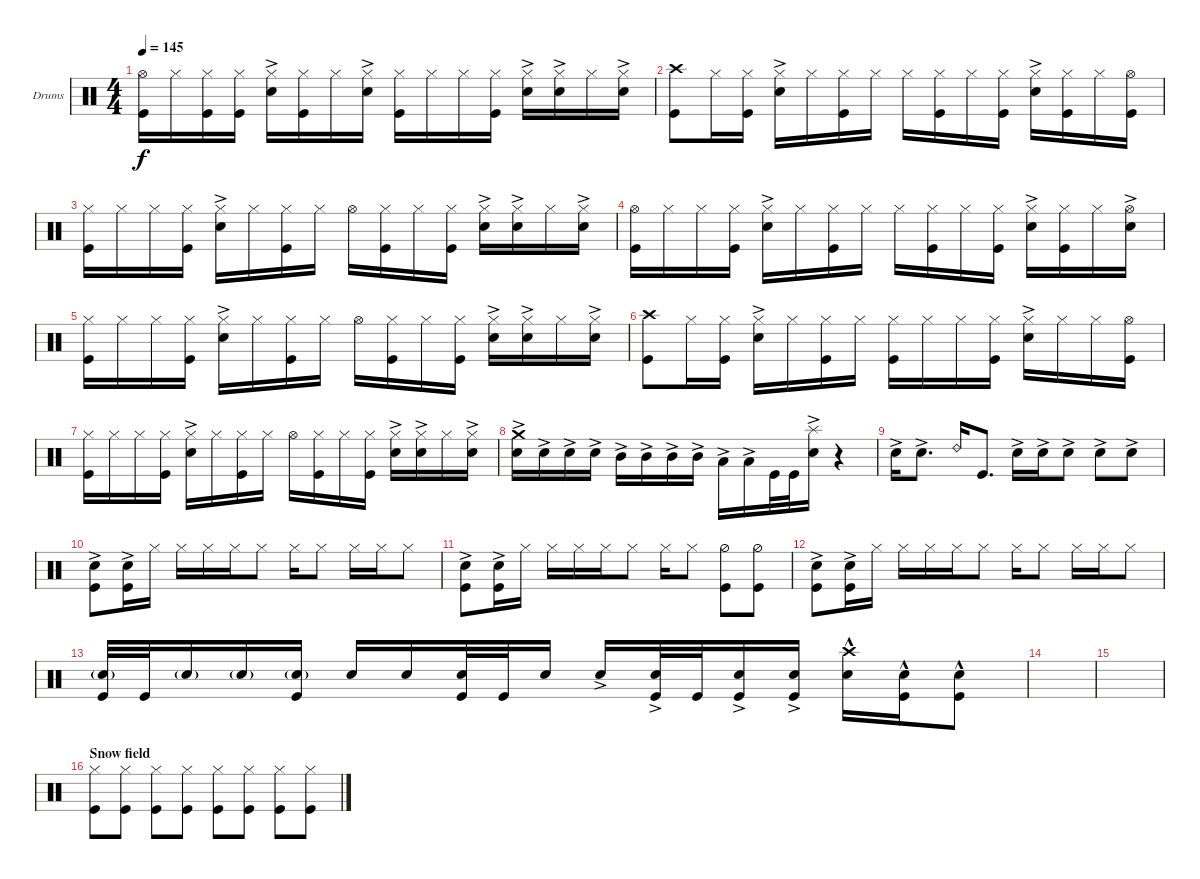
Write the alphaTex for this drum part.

\defaultSystemsLayout 4
\bracketExtendMode groupsimilarinstruments
\firstSystemTrackNameOrientation horizontal
\otherSystemsTrackNameOrientation horizontal
\track ("Drumkit" "Drums") {instrument percussion}
\staff {score}
\articulation defaults
\ts (4 4)
\tempo 145
\clef neutral
\ks c
("Kick (hit)" "Hi-Hat (open)").16{dy f} "Hi-Hat (closed)".16 ("Hi-Hat (closed)" "Kick (hit)").16 ("Kick (hit)" "Hi-Hat (closed)").16 ("Snare (hit) 2"{ac} "Hi-Hat (closed)").16 ("Hi-Hat (closed)" "Kick (hit)").16 "Hi-Hat (closed)".16 ("Hi-Hat (closed)" "Snare (hit) 2"{ac}).16 ("Hi-Hat (closed)" "Kick (hit)").16 "Hi-Hat (closed)".16 "Hi-Hat (closed)".16 ("Kick (hit)" "Hi-Hat (closed)").16 ("Hi-Hat (closed)" "Snare (hit) 2"{ac}).16 ("Hi-Hat (closed)" "Snare (hit) 2"{ac}).16 "Hi-Hat (closed)".16 ("Hi-Hat (closed)" "Snare (hit) 2"{ac}).16 |
("Kick (hit)" "Crash high (hit)").8 "Hi-Hat (closed)".16 ("Kick (hit)" "Hi-Hat (closed)").16 ("Snare (hit) 2"{ac} "Hi-Hat (closed)").16 "Hi-Hat (closed)".16 ("Hi-Hat (closed)" "Kick (hit)").16 "Hi-Hat (closed)".16 "Hi-Hat (closed)".16 ("Hi-Hat (closed)" "Kick (hit)").16 "Hi-Hat (closed)".16 ("Kick (hit)" "Hi-Hat (closed)").16 ("Hi-Hat (closed)" "Snare (hit) 2"{ac}).16 ("Hi-Hat (closed)" "Kick (hit)").16 "Hi-Hat (closed)".16 ("Hi-Hat (open)" "Kick (hit)").16 |
("Kick (hit)" "Hi-Hat (closed)").16 "Hi-Hat (closed)".16 "Hi-Hat (closed)".16 ("Kick (hit)" "Hi-Hat (closed)").16 ("Snare (hit) 2"{ac} "Hi-Hat (closed)").16 "Hi-Hat (closed)".16 ("Hi-Hat (closed)" "Kick (hit)").16 "Hi-Hat (closed)".16 "Hi-Hat (open)".16 ("Hi-Hat (closed)" "Kick (hit)").16 "Hi-Hat (closed)".16 ("Hi-Hat (closed)" "Kick (hit)").16 ("Hi-Hat (closed)" "Snare (hit) 2"{ac}).16 ("Hi-Hat (closed)" "Snare (hit) 2"{ac}).16 "Hi-Hat (closed)".16 ("Hi-Hat (closed)" "Snare (hit) 2"{ac}).16 |
("Kick (hit)" "Hi-Hat (open)").16 "Hi-Hat (closed)".16 "Hi-Hat (closed)".16 ("Kick (hit)" "Hi-Hat (closed)").16 ("Snare (hit) 2"{ac} "Hi-Hat (closed)").16 "Hi-Hat (closed)".16 ("Hi-Hat (closed)" "Kick (hit)").16 "Hi-Hat (closed)".16 "Hi-Hat (closed)".16 ("Hi-Hat (closed)" "Kick (hit)").16 "Hi-Hat (closed)".16 ("Kick (hit)" "Hi-Hat (closed)").16 ("Hi-Hat (closed)" "Snare (hit) 2"{ac}).16 ("Hi-Hat (closed)" "Kick (hit)").16 "Hi-Hat (closed)".16 ("Hi-Hat (open)" "Snare (hit) 2"{ac}).16 |
("Kick (hit)" "Hi-Hat (closed)").16 "Hi-Hat (closed)".16 "Hi-Hat (closed)".16 ("Kick (hit)" "Hi-Hat (closed)").16 ("Snare (hit) 2"{ac} "Hi-Hat (closed)").16 "Hi-Hat (closed)".16 ("Hi-Hat (closed)" "Kick (hit)").16 "Hi-Hat (closed)".16 "Hi-Hat (open)".16 ("Hi-Hat (closed)" "Kick (hit)").16 "Hi-Hat (closed)".16 ("Hi-Hat (closed)" "Kick (hit)").16 ("Hi-Hat (closed)" "Snare (hit) 2"{ac}).16 ("Hi-Hat (closed)" "Snare (hit) 2"{ac}).16 "Hi-Hat (closed)".16 ("Hi-Hat (closed)" "Snare (hit) 2"{ac}).16 |
("Kick (hit)" "Crash high (hit)").8 "Hi-Hat (closed)".16 ("Kick (hit)" "Hi-Hat (closed)").16 ("Snare (hit) 2"{ac} "Hi-Hat (closed)").16 "Hi-Hat (closed)".16 ("Hi-Hat (closed)" "Kick (hit)").16 "Hi-Hat (closed)".16 ("Hi-Hat (closed)" "Kick (hit)").16 "Hi-Hat (closed)".16 "Hi-Hat (closed)".16 ("Kick (hit)" "Hi-Hat (closed)").16 ("Hi-Hat (closed)" "Snare (hit) 2"{ac}).16 "Hi-Hat (closed)".16 "Hi-Hat (closed)".16 ("Hi-Hat (open)" "Kick (hit)").16 |
("Kick (hit)" "Hi-Hat (closed)").16 "Hi-Hat (closed)".16 "Hi-Hat (closed)".16 ("Kick (hit)" "Hi-Hat (closed)").16 ("Snare (hit) 2"{ac} "Hi-Hat (closed)").16 "Hi-Hat (closed)".16 ("Hi-Hat (closed)" "Kick (hit)").16 "Hi-Hat (closed)".16 "Hi-Hat (open)".16 ("Hi-Hat (closed)" "Kick (hit)").16 "Hi-Hat (closed)".16 ("Hi-Hat (closed)" "Kick (hit)").16 ("Hi-Hat (closed)" "Snare (hit) 2"{ac}).16 ("Hi-Hat (closed)" "Snare (hit) 2"{ac}).16 "Hi-Hat (closed)".16 ("Hi-Hat (closed)" "Snare (hit) 2"{ac}).16 |
("Snare (hit) 2"{ac} "Crash medium (hit)"{ac}).16 "Snare (hit) 2"{ac}.16 "Snare (hit) 2"{ac}.16 "Snare (hit) 2"{ac}.16 "Mid Tom (hit)"{ac}.16 "Mid Tom (hit)"{ac}.16 "Mid Tom (hit)"{ac}.16 "Mid Tom (hit)"{ac}.16 "Low Tom (hit)"{ac}.16 "Low Tom (hit)"{ac}.16 "Kick (hit)".32 "Kick (hit)".32 ("Snare (hit) 2"{ac} "Splash (hit)").16 r.4 |
"Snare (hit) 2"{ac}.16 "Snare (hit) 2"{ac}.8{d} "Ride (bell) 2".16 "Kick (hit)".8{d} "Snare (hit) 2"{ac}.16 "Snare (hit) 2"{ac}.16 "Snare (hit) 2"{ac}.8 "Snare (hit) 2"{ac}.8 "Snare (hit) 2"{ac}.8 |
("Snare (hit) 2"{ac} "Kick (hit)").8 ("Snare (hit) 2"{ac} "Kick (hit)").16 "Hi-Hat (closed)".16 "Hi-Hat (closed)".16 "Hi-Hat (closed)".16 "Hi-Hat (closed)".16 "Hi-Hat (closed)".8 "Hi-Hat (closed)".16 "Hi-Hat (closed)".8 "Hi-Hat (closed)".16 "Hi-Hat (closed)".16 "Hi-Hat (closed)".8 |
("Snare (hit) 2"{ac} "Kick (hit)").8 ("Snare (hit) 2"{ac} "Kick (hit)").16 "Hi-Hat (closed)".16 "Hi-Hat (closed)".16 "Hi-Hat (closed)".16 "Hi-Hat (closed)".16 "Hi-Hat (closed)".8 "Hi-Hat (closed)".16 "Hi-Hat (closed)".8 ("Hi-Hat (half)" "Kick (hit)").8 ("Hi-Hat (half)" "Kick (hit)").8 |
("Snare (hit) 2"{ac} "Kick (hit)").8 ("Snare (hit) 2"{ac} "Kick (hit)").16 "Hi-Hat (closed)".16 "Hi-Hat (closed)".16 "Hi-Hat (closed)".16 "Hi-Hat (closed)".16 "Hi-Hat (closed)".8 "Hi-Hat (closed)".16 "Hi-Hat (closed)".8 "Hi-Hat (closed)".16 "Hi-Hat (closed)".16 "Hi-Hat (closed)".8 |
("Snare (hit) 2"{g} "Kick (hit)").32 "Kick (hit)".32 "Snare (hit) 2"{g}.16 "Snare (hit) 2"{g}.16 ("Snare (hit) 2"{g} "Kick (hit)").16 "Snare (hit) 2".16 "Snare (hit) 2".16 ("Snare (hit) 2" "Kick (hit)").32 "Kick (hit)".32 "Snare (hit) 2".16 "Snare (hit) 2"{ac}.16 ("Snare (hit) 2"{ac} "Kick (hit)").32 "Kick (hit)".32 ("Snare (hit) 2"{ac} "Kick (hit)").16 ("Snare (hit) 2"{ac} "Kick (hit)").16 ("Snare (hit) 2"{hac} "Crash high (hit)").16 ("Snare (hit) 2"{hac} "Kick (hit)").16 ("Snare (hit) 2"{hac} "Kick (hit)").8 |
|
|
\section ("" "Snow field")
("Kick (hit)" "Hi-Hat (closed)").8 ("Kick (hit)" "Hi-Hat (closed)").8 ("Kick (hit)" "Hi-Hat (closed)").8 ("Kick (hit)" "Hi-Hat (closed)").8 ("Kick (hit)" "Hi-Hat (closed)").8 ("Kick (hit)" "Hi-Hat (closed)").8 ("Kick (hit)" "Hi-Hat (closed)").8 ("Kick (hit)" "Hi-Hat (closed)").8
